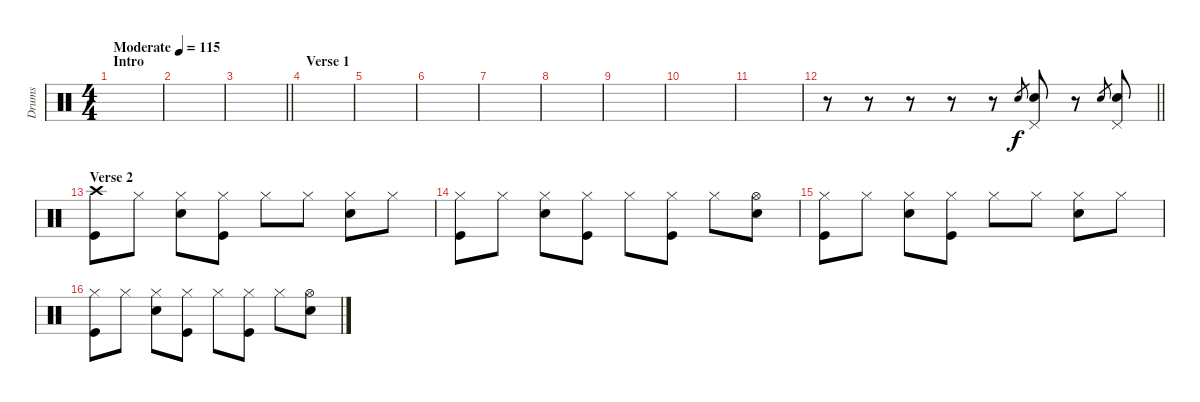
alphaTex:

\track ("Drums" "Drums") {instrument percussion}
\staff {score}
\articulation defaults
\ts (4 4)
\section ("" "Intro")
\tempo (115 "Moderate")
\clef neutral
\ks c
|
|
\barLineRight lightlight
|
\section ("" "Verse 1")
|
|
|
|
|
|
|
|
\barLineRight lightlight
r.8 r.8 r.8 r.8 r.8 "Snare (hit) 2".8{gr} ("Pedal Hi-Hat (hit)" "Snare (hit) 2").8 r.8 "Snare (hit) 2".8{gr} ("Pedal Hi-Hat (hit)" "Snare (hit) 2").8 |
\section ("" "Verse 2")
("Crash high (hit)" "Kick (hit)").8 "Hi-Hat (closed)".8 ("Hi-Hat (closed)" "Snare (hit) 2").8 ("Hi-Hat (closed)" "Kick (hit)").8 "Hi-Hat (closed)".8 "Hi-Hat (closed)".8 ("Hi-Hat (closed)" "Snare (hit) 2").8 "Hi-Hat (closed)".8 |
("Hi-Hat (closed)" "Kick (hit)").8 "Hi-Hat (closed)".8 ("Hi-Hat (closed)" "Snare (hit) 2").8 ("Hi-Hat (closed)" "Kick (hit)").8 "Hi-Hat (closed)".8 ("Hi-Hat (closed)" "Kick (hit)").8 "Hi-Hat (closed)".8 ("Hi-Hat (open)" "Snare (hit) 2").8 |
("Hi-Hat (closed)" "Kick (hit)").8 "Hi-Hat (closed)".8 ("Hi-Hat (closed)" "Snare (hit) 2").8 ("Hi-Hat (closed)" "Kick (hit)").8 "Hi-Hat (closed)".8 "Hi-Hat (closed)".8 ("Hi-Hat (closed)" "Snare (hit) 2").8 "Hi-Hat (closed)".8 |
("Hi-Hat (closed)" "Kick (hit)").8 "Hi-Hat (closed)".8 ("Hi-Hat (closed)" "Snare (hit) 2").8 ("Hi-Hat (closed)" "Kick (hit)").8 "Hi-Hat (closed)".8 ("Hi-Hat (closed)" "Kick (hit)").8 "Hi-Hat (closed)".8 ("Hi-Hat (open)" "Snare (hit) 2").8
